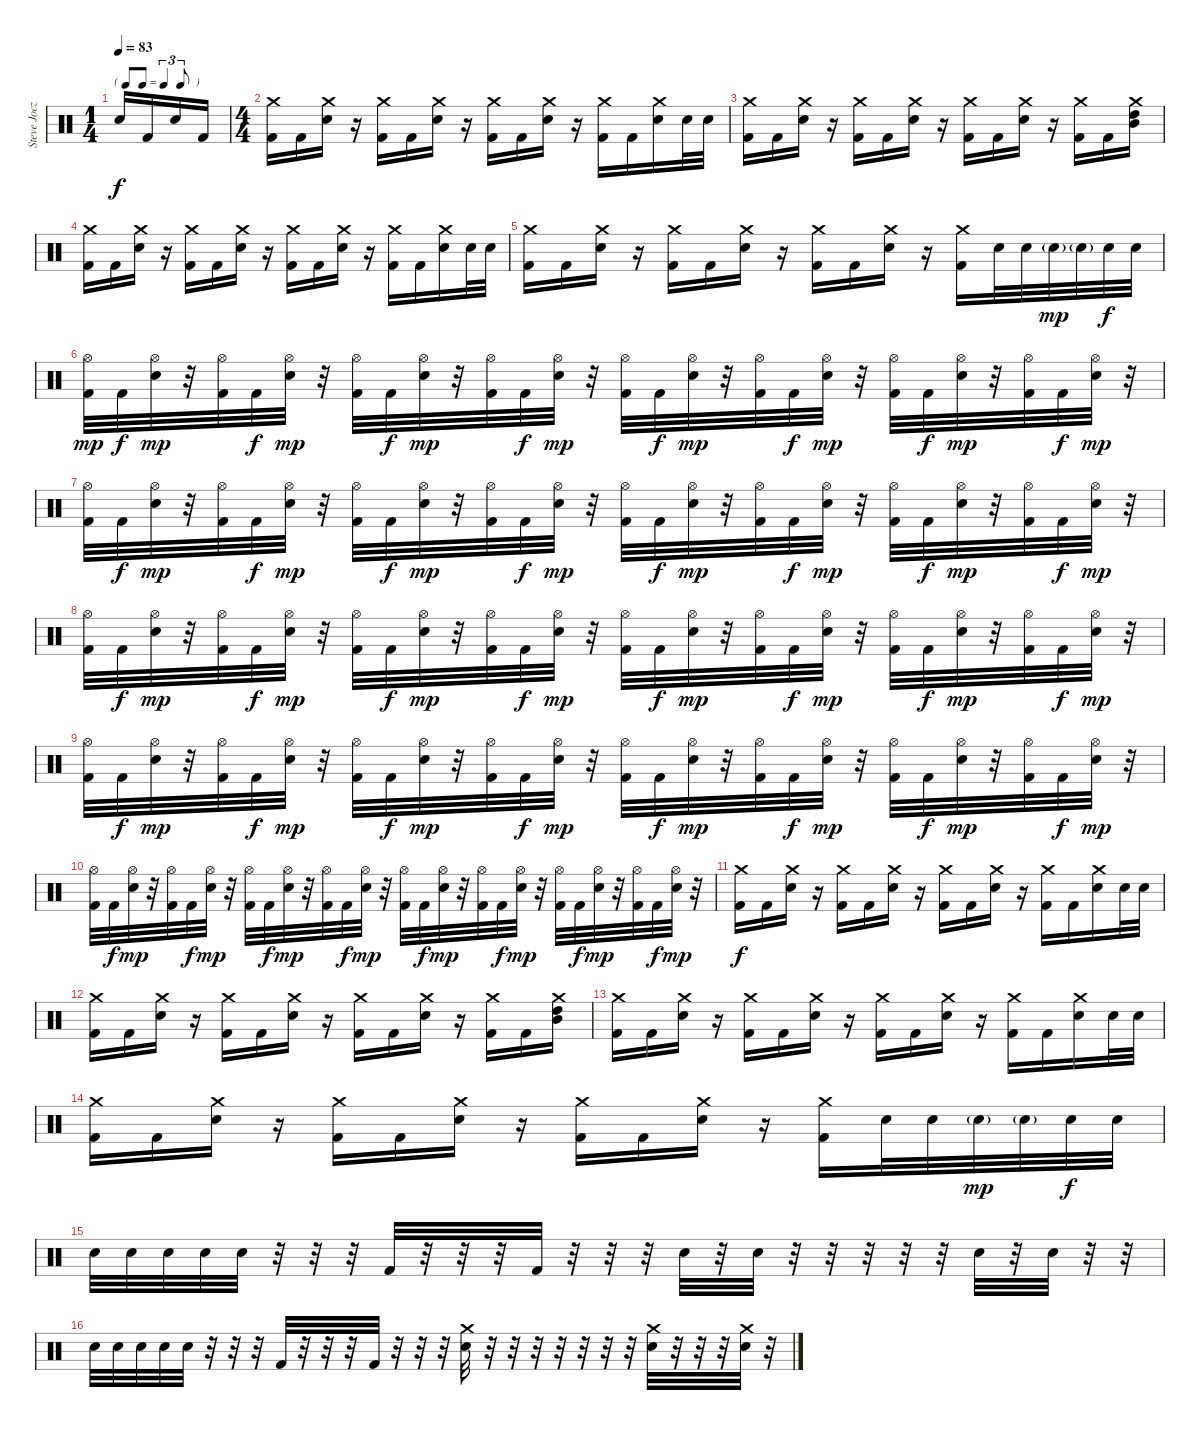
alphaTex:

\track ("Steve Jocz" "Steve Jocz") {instrument percussion}
\staff {score}
\articulation defaults
\ts (1 4)
\tf triplet8th
\tempo 83
\clef neutral
\ks c "Electric Snare (hit)".16{dy f} "Kick (hit) 2".16 "Electric Snare (hit)".16 "Kick (hit) 2".16
|
\ts (4 4)
("Crash medium (hit)" "Kick (hit) 2").16 "Kick (hit) 2".16 ("Crash medium (hit)" "Electric Snare (hit)").16 r.16 ("Crash medium (hit)" "Kick (hit) 2").16 "Kick (hit) 2".16 ("Crash medium (hit)" "Electric Snare (hit)").16 r.16 ("Crash medium (hit)" "Kick (hit) 2").16 "Kick (hit) 2".16 ("Crash medium (hit)" "Electric Snare (hit)").16 r.16 ("Crash medium (hit)" "Kick (hit) 2").16 "Kick (hit) 2".16 ("Crash medium (hit)" "Electric Snare (hit)").16 "Electric Snare (hit)".32 "Electric Snare (hit)".32 |
("Crash medium (hit)" "Kick (hit) 2").16 "Kick (hit) 2".16 ("Crash medium (hit)" "Electric Snare (hit)").16 r.16 ("Crash medium (hit)" "Kick (hit) 2").16 "Kick (hit) 2".16 ("Crash medium (hit)" "Electric Snare (hit)").16 r.16 ("Crash medium (hit)" "Kick (hit) 2").16 "Kick (hit) 2".16 ("Crash medium (hit)" "Electric Snare (hit)").16 r.16 ("Crash medium (hit)" "Kick (hit) 2").16 "Kick (hit) 2".16 ("Crash medium (hit)" "Mid Tom (hit)" "High Tom (hit)").16 |
("Crash medium (hit)" "Kick (hit) 2").16 "Kick (hit) 2".16 ("Crash medium (hit)" "Electric Snare (hit)").16 r.16 ("Crash medium (hit)" "Kick (hit) 2").16 "Kick (hit) 2".16 ("Crash medium (hit)" "Electric Snare (hit)").16 r.16 ("Crash medium (hit)" "Kick (hit) 2").16 "Kick (hit) 2".16 ("Crash medium (hit)" "Electric Snare (hit)").16 r.16 ("Crash medium (hit)" "Kick (hit) 2").16 "Kick (hit) 2".16 ("Crash medium (hit)" "Electric Snare (hit)").16 "Electric Snare (hit)".32 "Electric Snare (hit)".32 |
("Crash medium (hit)" "Kick (hit) 2").16 "Kick (hit) 2".16 ("Crash medium (hit)" "Electric Snare (hit)").16 r.16 ("Crash medium (hit)" "Kick (hit) 2").16 "Kick (hit) 2".16 ("Crash medium (hit)" "Electric Snare (hit)").16 r.16 ("Crash medium (hit)" "Kick (hit) 2").16 "Kick (hit) 2".16 ("Crash medium (hit)" "Electric Snare (hit)").16 r.16 ("Crash medium (hit)" "Kick (hit) 2").16 "Electric Snare (hit)".32 "Electric Snare (hit)".32 "Electric Snare (hit)"{g}.32{dy mp} "Electric Snare (hit)"{g}.32 "Electric Snare (hit)".32{dy f} "Electric Snare (hit)".32 |
("Hi-Hat (open)" "Kick (hit) 2").32{dy mp} "Kick (hit) 2".32{dy f} ("Hi-Hat (open)" "Electric Snare (hit)").32{dy mp} r.32 ("Hi-Hat (open)" "Kick (hit) 2").32 "Kick (hit) 2".32{dy f} ("Hi-Hat (open)" "Electric Snare (hit)").32{dy mp} r.32 ("Hi-Hat (open)" "Kick (hit) 2").32 "Kick (hit) 2".32{dy f} ("Hi-Hat (open)" "Electric Snare (hit)").32{dy mp} r.32 ("Hi-Hat (open)" "Kick (hit) 2").32 "Kick (hit) 2".32{dy f} ("Hi-Hat (open)" "Electric Snare (hit)").32{dy mp} r.32 ("Hi-Hat (open)" "Kick (hit) 2").32 "Kick (hit) 2".32{dy f} ("Hi-Hat (open)" "Electric Snare (hit)").32{dy mp} r.32 ("Hi-Hat (open)" "Kick (hit) 2").32 "Kick (hit) 2".32{dy f} ("Hi-Hat (open)" "Electric Snare (hit)").32{dy mp} r.32 ("Hi-Hat (open)" "Kick (hit) 2").32 "Kick (hit) 2".32{dy f} ("Hi-Hat (open)" "Electric Snare (hit)").32{dy mp} r.32 ("Hi-Hat (open)" "Kick (hit) 2").32 "Kick (hit) 2".32{dy f} ("Hi-Hat (open)" "Electric Snare (hit)").32{dy mp} r.32 |
("Hi-Hat (open)" "Kick (hit) 2").32 "Kick (hit) 2".32{dy f} ("Hi-Hat (open)" "Electric Snare (hit)").32{dy mp} r.32 ("Hi-Hat (open)" "Kick (hit) 2").32 "Kick (hit) 2".32{dy f} ("Hi-Hat (open)" "Electric Snare (hit)").32{dy mp} r.32 ("Hi-Hat (open)" "Kick (hit) 2").32 "Kick (hit) 2".32{dy f} ("Hi-Hat (open)" "Electric Snare (hit)").32{dy mp} r.32 ("Hi-Hat (open)" "Kick (hit) 2").32 "Kick (hit) 2".32{dy f} ("Hi-Hat (open)" "Electric Snare (hit)").32{dy mp} r.32 ("Hi-Hat (open)" "Kick (hit) 2").32 "Kick (hit) 2".32{dy f} ("Hi-Hat (open)" "Electric Snare (hit)").32{dy mp} r.32 ("Hi-Hat (open)" "Kick (hit) 2").32 "Kick (hit) 2".32{dy f} ("Hi-Hat (open)" "Electric Snare (hit)").32{dy mp} r.32 ("Hi-Hat (open)" "Kick (hit) 2").32 "Kick (hit) 2".32{dy f} ("Hi-Hat (open)" "Electric Snare (hit)").32{dy mp} r.32 ("Hi-Hat (open)" "Kick (hit) 2").32 "Kick (hit) 2".32{dy f} ("Hi-Hat (open)" "Electric Snare (hit)").32{dy mp} r.32 |
("Hi-Hat (open)" "Kick (hit) 2").32 "Kick (hit) 2".32{dy f} ("Hi-Hat (open)" "Electric Snare (hit)").32{dy mp} r.32 ("Hi-Hat (open)" "Kick (hit) 2").32 "Kick (hit) 2".32{dy f} ("Hi-Hat (open)" "Electric Snare (hit)").32{dy mp} r.32 ("Hi-Hat (open)" "Kick (hit) 2").32 "Kick (hit) 2".32{dy f} ("Hi-Hat (open)" "Electric Snare (hit)").32{dy mp} r.32 ("Hi-Hat (open)" "Kick (hit) 2").32 "Kick (hit) 2".32{dy f} ("Hi-Hat (open)" "Electric Snare (hit)").32{dy mp} r.32 ("Hi-Hat (open)" "Kick (hit) 2").32 "Kick (hit) 2".32{dy f} ("Hi-Hat (open)" "Electric Snare (hit)").32{dy mp} r.32 ("Hi-Hat (open)" "Kick (hit) 2").32 "Kick (hit) 2".32{dy f} ("Hi-Hat (open)" "Electric Snare (hit)").32{dy mp} r.32 ("Hi-Hat (open)" "Kick (hit) 2").32 "Kick (hit) 2".32{dy f} ("Hi-Hat (open)" "Electric Snare (hit)").32{dy mp} r.32 ("Hi-Hat (open)" "Kick (hit) 2").32 "Kick (hit) 2".32{dy f} ("Hi-Hat (open)" "Electric Snare (hit)").32{dy mp} r.32 |
("Hi-Hat (open)" "Kick (hit) 2").32 "Kick (hit) 2".32{dy f} ("Hi-Hat (open)" "Electric Snare (hit)").32{dy mp} r.32 ("Hi-Hat (open)" "Kick (hit) 2").32 "Kick (hit) 2".32{dy f} ("Hi-Hat (open)" "Electric Snare (hit)").32{dy mp} r.32 ("Hi-Hat (open)" "Kick (hit) 2").32 "Kick (hit) 2".32{dy f} ("Hi-Hat (open)" "Electric Snare (hit)").32{dy mp} r.32 ("Hi-Hat (open)" "Kick (hit) 2").32 "Kick (hit) 2".32{dy f} ("Hi-Hat (open)" "Electric Snare (hit)").32{dy mp} r.32 ("Hi-Hat (open)" "Kick (hit) 2").32 "Kick (hit) 2".32{dy f} ("Hi-Hat (open)" "Electric Snare (hit)").32{dy mp} r.32 ("Hi-Hat (open)" "Kick (hit) 2").32 "Kick (hit) 2".32{dy f} ("Hi-Hat (open)" "Electric Snare (hit)").32{dy mp} r.32 ("Hi-Hat (open)" "Kick (hit) 2").32 "Kick (hit) 2".32{dy f} ("Hi-Hat (open)" "Electric Snare (hit)").32{dy mp} r.32 ("Hi-Hat (open)" "Kick (hit) 2").32 "Kick (hit) 2".32{dy f} ("Hi-Hat (open)" "Electric Snare (hit)").32{dy mp} r.32 |
("Hi-Hat (open)" "Kick (hit) 2").32 "Kick (hit) 2".32{dy f} ("Hi-Hat (open)" "Electric Snare (hit)").32{dy mp} r.32 ("Hi-Hat (open)" "Kick (hit) 2").32 "Kick (hit) 2".32{dy f} ("Hi-Hat (open)" "Electric Snare (hit)").32{dy mp} r.32 ("Hi-Hat (open)" "Kick (hit) 2").32 "Kick (hit) 2".32{dy f} ("Hi-Hat (open)" "Electric Snare (hit)").32{dy mp} r.32 ("Hi-Hat (open)" "Kick (hit) 2").32 "Kick (hit) 2".32{dy f} ("Hi-Hat (open)" "Electric Snare (hit)").32{dy mp} r.32 ("Hi-Hat (open)" "Kick (hit) 2").32 "Kick (hit) 2".32{dy f} ("Hi-Hat (open)" "Electric Snare (hit)").32{dy mp} r.32 ("Hi-Hat (open)" "Kick (hit) 2").32 "Kick (hit) 2".32{dy f} ("Hi-Hat (open)" "Electric Snare (hit)").32{dy mp} r.32 ("Hi-Hat (open)" "Kick (hit) 2").32 "Kick (hit) 2".32{dy f} ("Hi-Hat (open)" "Electric Snare (hit)").32{dy mp} r.32 ("Hi-Hat (open)" "Kick (hit) 2").32 "Kick (hit) 2".32{dy f} ("Hi-Hat (open)" "Electric Snare (hit)").32{dy mp} r.32 |
("Crash medium (hit)" "Kick (hit) 2").16{dy f} "Kick (hit) 2".16 ("Crash medium (hit)" "Electric Snare (hit)").16 r.16 ("Crash medium (hit)" "Kick (hit) 2").16 "Kick (hit) 2".16 ("Crash medium (hit)" "Electric Snare (hit)").16 r.16 ("Crash medium (hit)" "Kick (hit) 2").16 "Kick (hit) 2".16 ("Crash medium (hit)" "Electric Snare (hit)").16 r.16 ("Crash medium (hit)" "Kick (hit) 2").16 "Kick (hit) 2".16 ("Crash medium (hit)" "Electric Snare (hit)").16 "Electric Snare (hit)".32 "Electric Snare (hit)".32 |
("Crash medium (hit)" "Kick (hit) 2").16 "Kick (hit) 2".16 ("Crash medium (hit)" "Electric Snare (hit)").16 r.16 ("Crash medium (hit)" "Kick (hit) 2").16 "Kick (hit) 2".16 ("Crash medium (hit)" "Electric Snare (hit)").16 r.16 ("Crash medium (hit)" "Kick (hit) 2").16 "Kick (hit) 2".16 ("Crash medium (hit)" "Electric Snare (hit)").16 r.16 ("Crash medium (hit)" "Kick (hit) 2").16 "Kick (hit) 2".16 ("Crash medium (hit)" "Mid Tom (hit)" "High Tom (hit)").16 |
("Crash medium (hit)" "Kick (hit) 2").16 "Kick (hit) 2".16 ("Crash medium (hit)" "Electric Snare (hit)").16 r.16 ("Crash medium (hit)" "Kick (hit) 2").16 "Kick (hit) 2".16 ("Crash medium (hit)" "Electric Snare (hit)").16 r.16 ("Crash medium (hit)" "Kick (hit) 2").16 "Kick (hit) 2".16 ("Crash medium (hit)" "Electric Snare (hit)").16 r.16 ("Crash medium (hit)" "Kick (hit) 2").16 "Kick (hit) 2".16 ("Crash medium (hit)" "Electric Snare (hit)").16 "Electric Snare (hit)".32 "Electric Snare (hit)".32 |
("Crash medium (hit)" "Kick (hit) 2").16 "Kick (hit) 2".16 ("Crash medium (hit)" "Electric Snare (hit)").16 r.16 ("Crash medium (hit)" "Kick (hit) 2").16 "Kick (hit) 2".16 ("Crash medium (hit)" "Electric Snare (hit)").16 r.16 ("Crash medium (hit)" "Kick (hit) 2").16 "Kick (hit) 2".16 ("Crash medium (hit)" "Electric Snare (hit)").16 r.16 ("Crash medium (hit)" "Kick (hit) 2").16 "Electric Snare (hit)".32 "Electric Snare (hit)".32 "Electric Snare (hit)"{g}.32{dy mp} "Electric Snare (hit)"{g}.32 "Electric Snare (hit)".32{dy f} "Electric Snare (hit)".32 |
"Electric Snare (hit)".32 "Electric Snare (hit)".32 "Electric Snare (hit)".32 "Electric Snare (hit)".32 "Electric Snare (hit)".32 r.32 r.32 r.32 "Kick (hit) 2".32 r.32 r.32 r.32 "Kick (hit) 2".32 r.32 r.32 r.32 "Electric Snare (hit)".32 r.32 "Electric Snare (hit)".32 r.32 r.32 r.32 r.32 r.32 "Electric Snare (hit)".32 r.32 "Electric Snare (hit)".32 r.32 r.32 |
"Electric Snare (hit)".32 "Electric Snare (hit)".32 "Electric Snare (hit)".32 "Electric Snare (hit)".32 "Electric Snare (hit)".32 r.32 r.32 r.32 "Kick (hit) 2".32 r.32 r.32 r.32 "Kick (hit) 2".32 r.32 r.32 r.32 ("Crash medium (hit)" "Electric Snare (hit)").32 r.32 r.32 r.32 r.32 r.32 r.32 r.32 ("Crash medium (hit)" "Electric Snare (hit)").32 r.32 r.32 r.32 ("Crash medium (hit)" "Electric Snare (hit)").32 r.32
